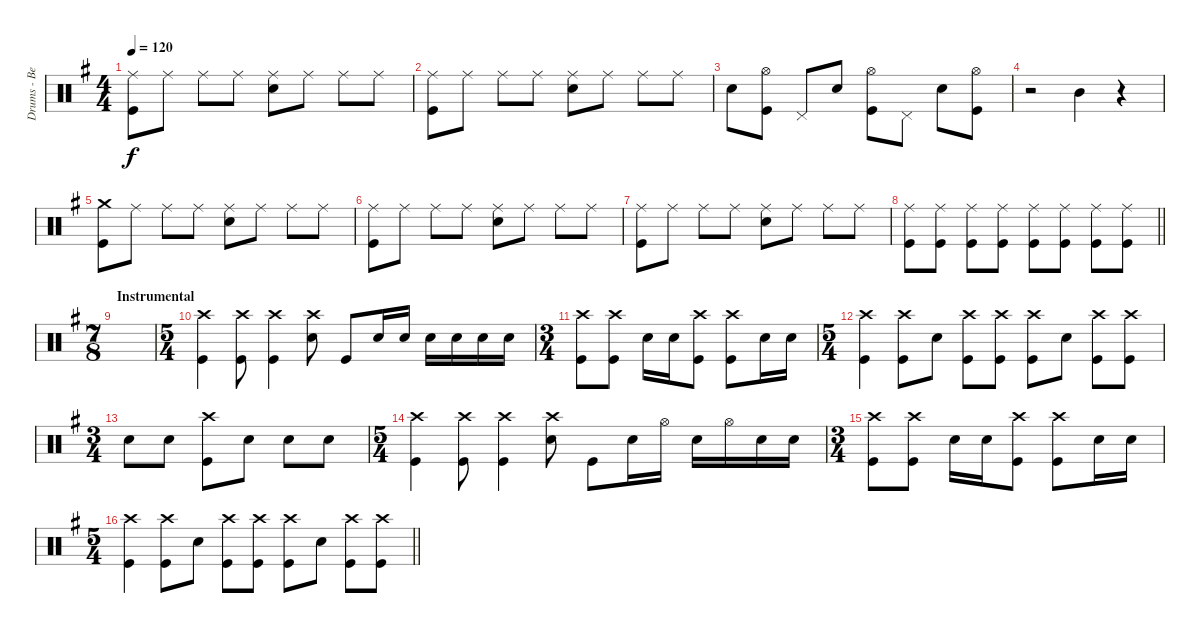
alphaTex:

\track ("Drums - Ben Johnston" "Drums - Be") {instrument percussion}
\staff {score}
\articulation defaults
\ts (4 4)
\tempo 120
\clef neutral
\ks eminor
("Ride (middle)" "Kick (hit)").8{dy f} "Ride (middle)".8 "Ride (middle)".8 "Ride (middle)".8 ("Ride (middle)" "Snare (hit) 2").8 "Ride (middle)".8 "Ride (middle)".8 "Ride (middle)".8 |
("Ride (middle)" "Kick (hit)").8 "Ride (middle)".8 "Ride (middle)".8 "Ride (middle)".8 ("Ride (middle)" "Snare (hit) 2").8 "Ride (middle)".8 "Ride (middle)".8 "Ride (middle)".8 |
"Snare (hit) 2".8 ("Hi-Hat (open)" "Kick (hit)").8 "Pedal Hi-Hat (hit)".8 "Snare (hit) 2".8 ("Hi-Hat (open)" "Kick (hit)").8 "Pedal Hi-Hat (hit)".8 "Snare (hit) 2".8 ("Hi-Hat (open)" "Kick (hit)").8 |
r.2 "Mid Tom (hit)".4 r.4 |
("Crash medium (hit)" "Kick (hit)").8 "Ride (middle)".8 "Ride (middle)".8 "Ride (middle)".8 ("Ride (middle)" "Snare (hit) 2").8 "Ride (middle)".8 "Ride (middle)".8 "Ride (middle)".8 |
("Ride (middle)" "Kick (hit)").8 "Ride (middle)".8 "Ride (middle)".8 "Ride (middle)".8 ("Ride (middle)" "Snare (hit) 2").8 "Ride (middle)".8 "Ride (middle)".8 "Ride (middle)".8 |
("Ride (middle)" "Kick (hit)").8 "Ride (middle)".8 "Ride (middle)".8 "Ride (middle)".8 ("Ride (middle)" "Snare (hit) 2").8 "Ride (middle)".8 "Ride (middle)".8 "Ride (middle)".8 |
\barLineRight lightlight
("Ride (middle)" "Kick (hit)").8 ("Ride (middle)" "Kick (hit)").8 ("Ride (middle)" "Kick (hit)").8 ("Ride (middle)" "Kick (hit)").8 ("Ride (middle)" "Kick (hit)").8 ("Ride (middle)" "Kick (hit)").8 ("Ride (middle)" "Kick (hit)").8 ("Ride (middle)" "Kick (hit)").8 |
\ts (7 8)
\section ("" "Instrumental")
|
\ts (5 4)
("Crash high (hit)" "Kick (hit)").4{volume 14} ("Crash high (hit)" "Kick (hit)").8 ("Crash high (hit)" "Kick (hit)").4 ("Crash high (hit)" "Snare (hit) 2").8 "Kick (hit)".8 "Snare (hit) 2".16 "Snare (hit) 2".16 "Snare (hit) 2".16 "Snare (hit) 2".16 "Snare (hit) 2".16 "Snare (hit) 2".16 |
\ts (3 4)
("Crash high (hit)" "Kick (hit)").8 ("Crash high (hit)" "Kick (hit)").8 "Snare (hit) 2".16 "Snare (hit) 2".16 ("Crash high (hit)" "Kick (hit)").8 ("Crash high (hit)" "Kick (hit)").8 "Snare (hit) 2".16 "Snare (hit) 2".16 |
\ts (5 4)
("Crash high (hit)" "Kick (hit)").4 ("Crash high (hit)" "Kick (hit)").8 "Snare (hit) 2".8 ("Crash high (hit)" "Kick (hit)").8 ("Crash high (hit)" "Kick (hit)").8 ("Crash high (hit)" "Kick (hit)").8 "Snare (hit) 2".8 ("Crash high (hit)" "Kick (hit)").8 ("Crash high (hit)" "Kick (hit)").8 |
\ts (3 4)
"Snare (hit) 2".8 "Snare (hit) 2".8 ("Crash high (hit)" "Kick (hit)").8 "Snare (hit) 2".8 "Snare (hit) 2".8 "Snare (hit) 2".8 |
\ts (5 4)
("Crash high (hit)" "Kick (hit)").4 ("Crash high (hit)" "Kick (hit)").8 ("Crash high (hit)" "Kick (hit)").4 ("Crash high (hit)" "Snare (hit) 2").8 "Kick (hit)".8 "Snare (hit) 2".16 "Hi-Hat (open)".16 "Snare (hit) 2".16 "Hi-Hat (open)".16 "Snare (hit) 2".16 "Snare (hit) 2".16 |
\ts (3 4)
("Crash high (hit)" "Kick (hit)").8 ("Crash high (hit)" "Kick (hit)").8 "Snare (hit) 2".16 "Snare (hit) 2".16 ("Crash high (hit)" "Kick (hit)").8 ("Crash high (hit)" "Kick (hit)").8 "Snare (hit) 2".16 "Snare (hit) 2".16 |
\ts (5 4)
\barLineRight lightlight
("Crash high (hit)" "Kick (hit)").4 ("Crash high (hit)" "Kick (hit)").8 "Snare (hit) 2".8 ("Crash high (hit)" "Kick (hit)").8 ("Crash high (hit)" "Kick (hit)").8 ("Crash high (hit)" "Kick (hit)").8 "Snare (hit) 2".8 ("Crash high (hit)" "Kick (hit)").8 ("Crash high (hit)" "Kick (hit)").8
